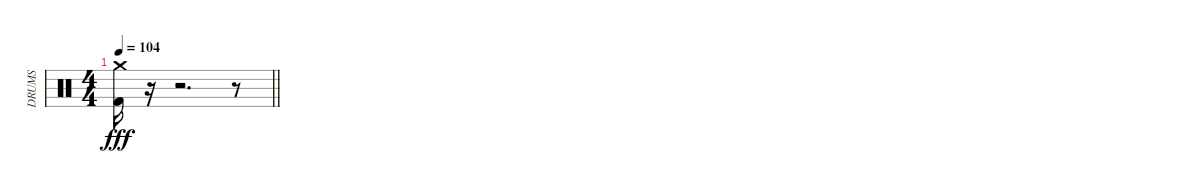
\track ("DRUMS" "DRUMS") {instrument percussion}
\staff {score}
\articulation defaults
\ts (4 4)
\tempo 104
\clef neutral
\barLineRight lightlight
\ks c
("Crash medium (hit)" "Kick (hit) 2").16{dy fff} r.16 r.2{d} r.8
